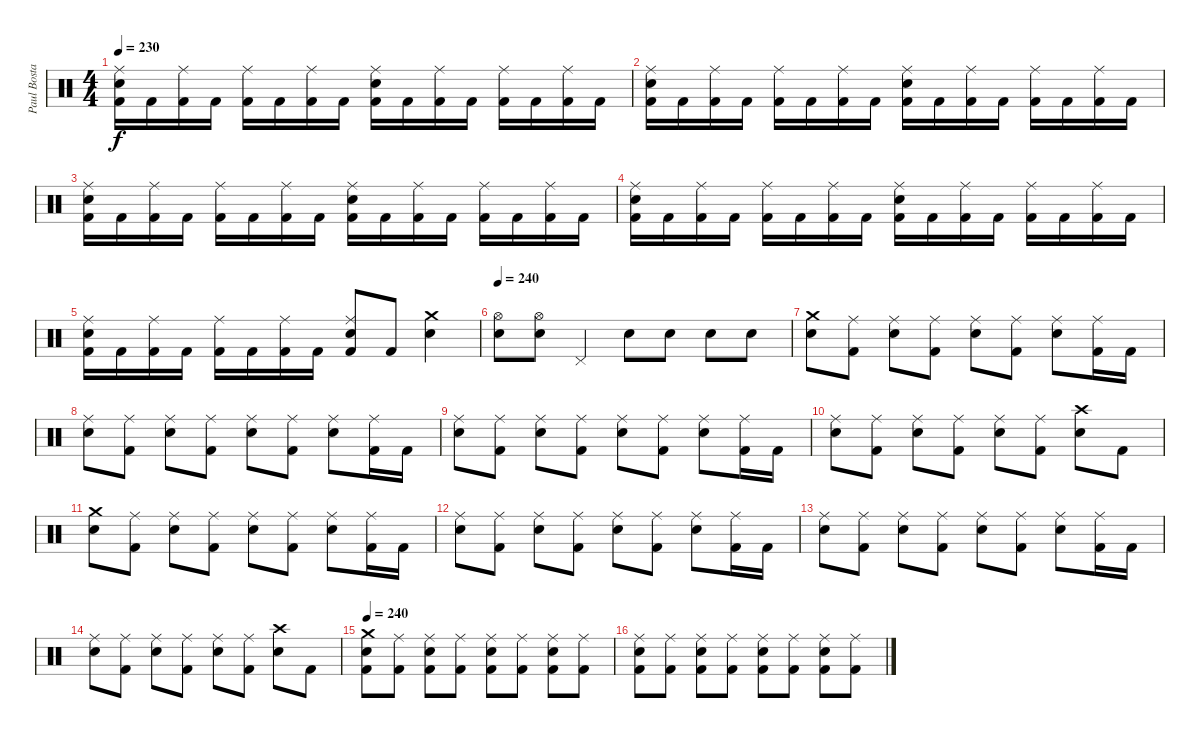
\track ("Paul Bostaph" "Paul Bosta") {instrument percussion}
\staff {score}
\articulation defaults
\ts (4 4)
\tempo 230
\clef neutral
\ks c
("Electric Snare (hit)" "Ride (middle)" "Kick (hit) 2").16{dy f} "Kick (hit) 2".16 ("Ride (middle)" "Kick (hit) 2").16 "Kick (hit) 2".16 ("Ride (middle)" "Kick (hit) 2").16 "Kick (hit) 2".16 ("Ride (middle)" "Kick (hit) 2").16 "Kick (hit) 2".16 ("Electric Snare (hit)" "Ride (middle)" "Kick (hit) 2").16 "Kick (hit) 2".16 ("Ride (middle)" "Kick (hit) 2").16 "Kick (hit) 2".16 ("Ride (middle)" "Kick (hit) 2").16 "Kick (hit) 2".16 ("Ride (middle)" "Kick (hit) 2").16 "Kick (hit) 2".16 |
("Electric Snare (hit)" "Ride (middle)" "Kick (hit) 2").16 "Kick (hit) 2".16 ("Ride (middle)" "Kick (hit) 2").16 "Kick (hit) 2".16 ("Ride (middle)" "Kick (hit) 2").16 "Kick (hit) 2".16 ("Ride (middle)" "Kick (hit) 2").16 "Kick (hit) 2".16 ("Electric Snare (hit)" "Ride (middle)" "Kick (hit) 2").16 "Kick (hit) 2".16 ("Ride (middle)" "Kick (hit) 2").16 "Kick (hit) 2".16 ("Ride (middle)" "Kick (hit) 2").16 "Kick (hit) 2".16 ("Ride (middle)" "Kick (hit) 2").16 "Kick (hit) 2".16 |
("Electric Snare (hit)" "Ride (middle)" "Kick (hit) 2").16 "Kick (hit) 2".16 ("Ride (middle)" "Kick (hit) 2").16 "Kick (hit) 2".16 ("Ride (middle)" "Kick (hit) 2").16 "Kick (hit) 2".16 ("Ride (middle)" "Kick (hit) 2").16 "Kick (hit) 2".16 ("Electric Snare (hit)" "Ride (middle)" "Kick (hit) 2").16 "Kick (hit) 2".16 ("Ride (middle)" "Kick (hit) 2").16 "Kick (hit) 2".16 ("Ride (middle)" "Kick (hit) 2").16 "Kick (hit) 2".16 ("Ride (middle)" "Kick (hit) 2").16 "Kick (hit) 2".16 |
("Electric Snare (hit)" "Ride (middle)" "Kick (hit) 2").16 "Kick (hit) 2".16 ("Ride (middle)" "Kick (hit) 2").16 "Kick (hit) 2".16 ("Ride (middle)" "Kick (hit) 2").16 "Kick (hit) 2".16 ("Ride (middle)" "Kick (hit) 2").16 "Kick (hit) 2".16 ("Electric Snare (hit)" "Ride (middle)" "Kick (hit) 2").16 "Kick (hit) 2".16 ("Ride (middle)" "Kick (hit) 2").16 "Kick (hit) 2".16 ("Ride (middle)" "Kick (hit) 2").16 "Kick (hit) 2".16 ("Ride (middle)" "Kick (hit) 2").16 "Kick (hit) 2".16 |
("Electric Snare (hit)" "Ride (middle)" "Kick (hit) 2").16 "Kick (hit) 2".16 ("Ride (middle)" "Kick (hit) 2").16 "Kick (hit) 2".16 ("Ride (middle)" "Kick (hit) 2").16 "Kick (hit) 2".16 ("Ride (middle)" "Kick (hit) 2").16 "Kick (hit) 2".16 ("Electric Snare (hit)" "Ride (middle)" "Kick (hit) 2").8 "Kick (hit) 2".8 ("Electric Snare (hit)" "Crash medium (hit)").4 |
\tempo 240
("Electric Snare (hit)" "Hi-Hat (open)").8 ("Electric Snare (hit)" "Hi-Hat (open)").8 "Pedal Hi-Hat (hit)".4 "Electric Snare (hit)".8 "Electric Snare (hit)".8 "Electric Snare (hit)".8 "Electric Snare (hit)".8 |
("Electric Snare (hit)" "Crash medium (hit)").8 ("Kick (hit) 2" "Ride (middle)").8 ("Electric Snare (hit)" "Ride (middle)").8 ("Kick (hit) 2" "Ride (middle)").8 ("Electric Snare (hit)" "Ride (middle)").8 ("Kick (hit) 2" "Ride (middle)").8 ("Electric Snare (hit)" "Ride (middle)").8 ("Kick (hit) 2" "Ride (middle)").16 "Kick (hit) 2".16 |
("Electric Snare (hit)" "Ride (middle)").8 ("Kick (hit) 2" "Ride (middle)").8 ("Electric Snare (hit)" "Ride (middle)").8 ("Kick (hit) 2" "Ride (middle)").8 ("Electric Snare (hit)" "Ride (middle)").8 ("Kick (hit) 2" "Ride (middle)").8 ("Electric Snare (hit)" "Ride (middle)").8 ("Kick (hit) 2" "Ride (middle)").16 "Kick (hit) 2".16 |
("Electric Snare (hit)" "Ride (middle)").8 ("Kick (hit) 2" "Ride (middle)").8 ("Electric Snare (hit)" "Ride (middle)").8 ("Kick (hit) 2" "Ride (middle)").8 ("Electric Snare (hit)" "Ride (middle)").8 ("Kick (hit) 2" "Ride (middle)").8 ("Electric Snare (hit)" "Ride (middle)").8 ("Kick (hit) 2" "Ride (middle)").16 "Kick (hit) 2".16 |
("Electric Snare (hit)" "Ride (middle)").8 ("Kick (hit) 2" "Ride (middle)").8 ("Electric Snare (hit)" "Ride (middle)").8 ("Kick (hit) 2" "Ride (middle)").8 ("Electric Snare (hit)" "Ride (middle)").8 ("Kick (hit) 2" "Ride (middle)").8 ("Electric Snare (hit)" "Crash high (hit)").8 "Kick (hit) 2".8 |
("Electric Snare (hit)" "Crash medium (hit)").8 ("Kick (hit) 2" "Ride (middle)").8 ("Electric Snare (hit)" "Ride (middle)").8 ("Kick (hit) 2" "Ride (middle)").8 ("Electric Snare (hit)" "Ride (middle)").8 ("Kick (hit) 2" "Ride (middle)").8 ("Electric Snare (hit)" "Ride (middle)").8 ("Kick (hit) 2" "Ride (middle)").16 "Kick (hit) 2".16 |
("Electric Snare (hit)" "Ride (middle)").8 ("Kick (hit) 2" "Ride (middle)").8 ("Electric Snare (hit)" "Ride (middle)").8 ("Kick (hit) 2" "Ride (middle)").8 ("Electric Snare (hit)" "Ride (middle)").8 ("Kick (hit) 2" "Ride (middle)").8 ("Electric Snare (hit)" "Ride (middle)").8 ("Kick (hit) 2" "Ride (middle)").16 "Kick (hit) 2".16 |
("Electric Snare (hit)" "Ride (middle)").8 ("Kick (hit) 2" "Ride (middle)").8 ("Electric Snare (hit)" "Ride (middle)").8 ("Kick (hit) 2" "Ride (middle)").8 ("Electric Snare (hit)" "Ride (middle)").8 ("Kick (hit) 2" "Ride (middle)").8 ("Electric Snare (hit)" "Ride (middle)").8 ("Kick (hit) 2" "Ride (middle)").16 "Kick (hit) 2".16 |
("Electric Snare (hit)" "Ride (middle)").8 ("Kick (hit) 2" "Ride (middle)").8 ("Electric Snare (hit)" "Ride (middle)").8 ("Kick (hit) 2" "Ride (middle)").8 ("Electric Snare (hit)" "Ride (middle)").8 ("Kick (hit) 2" "Ride (middle)").8 ("Electric Snare (hit)" "Crash high (hit)").8 "Kick (hit) 2".8 |
\tempo 240
("Crash medium (hit)" "Kick (hit) 2" "Electric Snare (hit)").8 ("Ride (middle)" "Kick (hit) 2").8 ("Ride (middle)" "Kick (hit) 2" "Electric Snare (hit)").8 ("Ride (middle)" "Kick (hit) 2").8 ("Ride (middle)" "Kick (hit) 2" "Electric Snare (hit)").8 ("Ride (middle)" "Kick (hit) 2").8 ("Ride (middle)" "Kick (hit) 2" "Electric Snare (hit)").8 ("Ride (middle)" "Kick (hit) 2").8 |
("Ride (middle)" "Kick (hit) 2" "Electric Snare (hit)").8 ("Ride (middle)" "Kick (hit) 2").8 ("Ride (middle)" "Kick (hit) 2" "Electric Snare (hit)").8 ("Ride (middle)" "Kick (hit) 2").8 ("Ride (middle)" "Kick (hit) 2" "Electric Snare (hit)").8 ("Ride (middle)" "Kick (hit) 2").8 ("Ride (middle)" "Kick (hit) 2" "Electric Snare (hit)").8 ("Ride (middle)" "Kick (hit) 2").8
